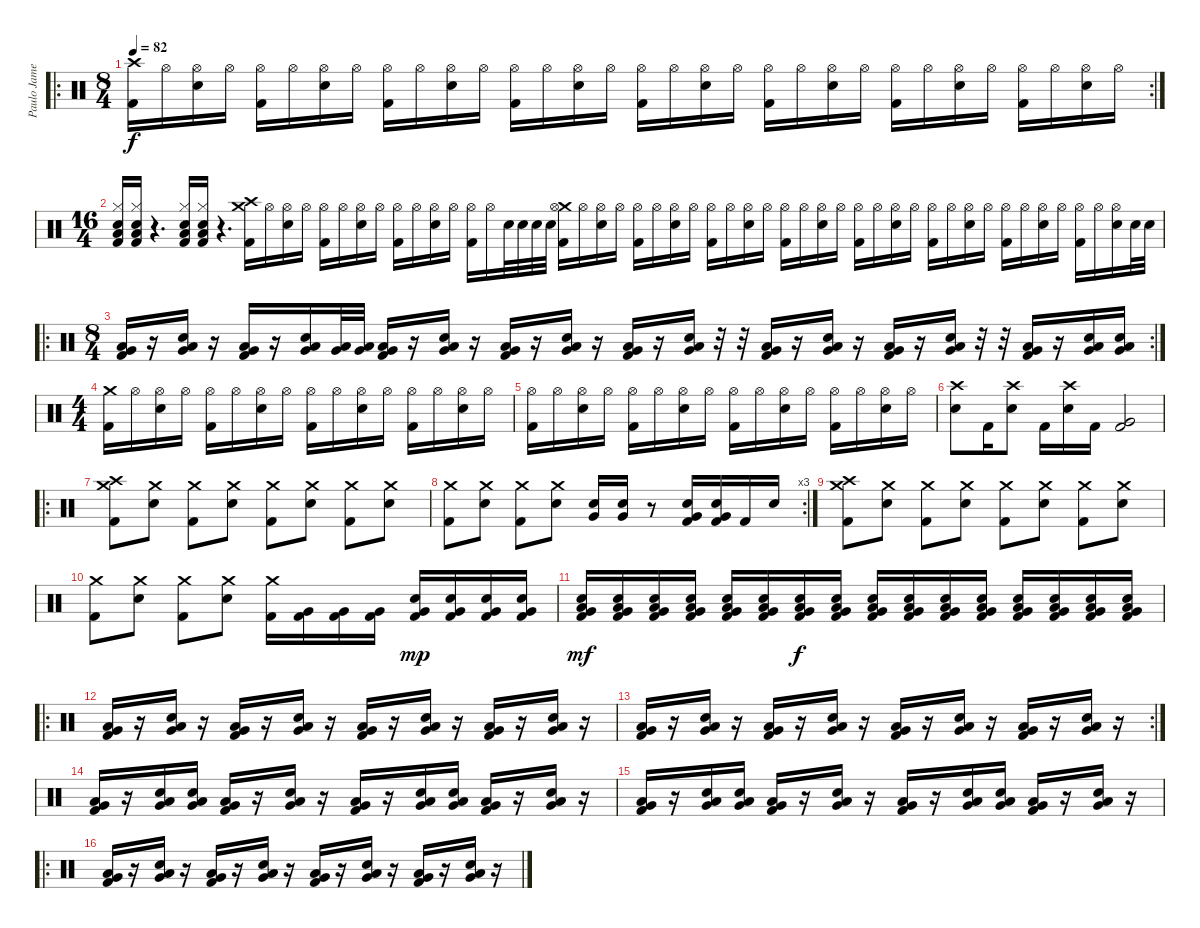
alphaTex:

\track ("Paulo James" "Paulo Jame") {instrument percussion}
\staff {score}
\articulation defaults
\ro
\rc 2
\ts (8 4)
\tempo 82
\clef neutral
\ks c
("Crash high (hit)" "Kick (hit) 2").16{dy f} "Hi-Hat (open)".16 ("Hi-Hat (open)" "Electric Snare (hit)").16 "Hi-Hat (open)".16 ("Hi-Hat (open)" "Kick (hit) 2").16 "Hi-Hat (open)".16 ("Hi-Hat (open)" "Electric Snare (hit)").16 "Hi-Hat (open)".16 ("Hi-Hat (open)" "Kick (hit) 2").16 "Hi-Hat (open)".16 ("Hi-Hat (open)" "Electric Snare (hit)").16 "Hi-Hat (open)".16 ("Hi-Hat (open)" "Kick (hit) 2").16 "Hi-Hat (open)".16 ("Hi-Hat (open)" "Electric Snare (hit)").16 "Hi-Hat (open)".16 ("Hi-Hat (open)" "Kick (hit) 2").16 "Hi-Hat (open)".16 ("Hi-Hat (open)" "Electric Snare (hit)").16 "Hi-Hat (open)".16 ("Hi-Hat (open)" "Kick (hit) 2").16 "Hi-Hat (open)".16 ("Hi-Hat (open)" "Electric Snare (hit)").16 "Hi-Hat (open)".16 ("Hi-Hat (open)" "Kick (hit) 2").16 "Hi-Hat (open)".16 ("Hi-Hat (open)" "Electric Snare (hit)").16 "Hi-Hat (open)".16 ("Hi-Hat (open)" "Kick (hit) 2").16 "Hi-Hat (open)".16 ("Hi-Hat (open)" "Electric Snare (hit)").16 "Hi-Hat (open)".16 |
\ts (16 4)
("Hi-Hat (closed)" "Low Floor Tom (hit)" "Electric Snare (hit)" "Kick (hit) 2").16{balance 0} ("Hi-Hat (closed)" "Low Floor Tom (hit)" "Electric Snare (hit)" "Kick (hit) 2").16 r.4{d} ("Hi-Hat (closed)" "Low Floor Tom (hit)" "Electric Snare (hit)" "Kick (hit) 2").16{balance 16} ("Hi-Hat (closed)" "Low Floor Tom (hit)" "Electric Snare (hit)" "Kick (hit) 2").16 r.4{d balance 8} ("Crash medium (hit)" "Crash high (hit)" "Kick (hit) 2").16 "Hi-Hat (open)".16 ("Hi-Hat (open)" "Electric Snare (hit)").16 "Hi-Hat (open)".16 ("Hi-Hat (open)" "Kick (hit) 2").16 "Hi-Hat (open)".16 ("Hi-Hat (open)" "Electric Snare (hit)").16 "Hi-Hat (open)".16 ("Hi-Hat (open)" "Kick (hit) 2").16 "Hi-Hat (open)".16 ("Hi-Hat (open)" "Electric Snare (hit)").16 "Hi-Hat (open)".16 ("Hi-Hat (open)" "Kick (hit) 2").16 "Hi-Hat (open)".16 "Electric Snare (hit)".32 "Electric Snare (hit)".32 "Electric Snare (hit)".32 "Electric Snare (hit)".32 ("Crash medium (hit)" "Hi-Hat (open)" "Kick (hit) 2").16 "Hi-Hat (open)".16 ("Hi-Hat (open)" "Electric Snare (hit)").16 "Hi-Hat (open)".16 ("Hi-Hat (open)" "Kick (hit) 2").16 "Hi-Hat (open)".16 ("Hi-Hat (open)" "Electric Snare (hit)").16 "Hi-Hat (open)".16 ("Hi-Hat (open)" "Kick (hit) 2").16 "Hi-Hat (open)".16 ("Hi-Hat (open)" "Electric Snare (hit)").16 "Hi-Hat (open)".16 ("Hi-Hat (open)" "Kick (hit) 2").16 "Hi-Hat (open)".16 ("Hi-Hat (open)" "Electric Snare (hit)").16 "Hi-Hat (open)".16 ("Hi-Hat (open)" "Kick (hit) 2").16 "Hi-Hat (open)".16 ("Hi-Hat (open)" "Electric Snare (hit)").16 "Hi-Hat (open)".16 ("Hi-Hat (open)" "Kick (hit) 2").16 "Hi-Hat (open)".16 ("Hi-Hat (open)" "Electric Snare (hit)").16 "Hi-Hat (open)".16 ("Hi-Hat (open)" "Kick (hit) 2").16 "Hi-Hat (open)".16 ("Hi-Hat (open)" "Electric Snare (hit)").16 "Hi-Hat (open)".16 ("Hi-Hat (open)" "Kick (hit) 2").16 "Hi-Hat (open)".16 ("Hi-Hat (open)" "Electric Snare (hit)").16 "Electric Snare (hit)".32 "Electric Snare (hit)".32 |
\ro
\rc 2
\ts (8 4)
("Very Low Tom (hit)" "Low Floor Tom (hit)" "Kick (hit) 2").16 r.16 ("Very Low Tom (hit)" "Low Floor Tom (hit)" "Electric Snare (hit)").16 r.16 ("Very Low Tom (hit)" "Low Floor Tom (hit)" "Kick (hit) 2").16 r.16 ("Very Low Tom (hit)" "Low Floor Tom (hit)" "Electric Snare (hit)").16 ("Very Low Tom (hit)" "Low Floor Tom (hit)").32 ("Very Low Tom (hit)" "Low Floor Tom (hit)").32 ("Very Low Tom (hit)" "Low Floor Tom (hit)" "Kick (hit) 2").16 r.16 ("Very Low Tom (hit)" "Low Floor Tom (hit)" "Electric Snare (hit)").16 r.16 ("Very Low Tom (hit)" "Low Floor Tom (hit)" "Kick (hit) 2").16 r.16 ("Very Low Tom (hit)" "Low Floor Tom (hit)" "Electric Snare (hit)").16 r.16 ("Very Low Tom (hit)" "Low Floor Tom (hit)" "Kick (hit) 2").16 r.16 ("Very Low Tom (hit)" "Low Floor Tom (hit)" "Electric Snare (hit)").16 r.32 r.32 ("Very Low Tom (hit)" "Low Floor Tom (hit)" "Kick (hit) 2").16 r.16 ("Very Low Tom (hit)" "Low Floor Tom (hit)" "Electric Snare (hit)").16 r.16 ("Very Low Tom (hit)" "Low Floor Tom (hit)" "Kick (hit) 2").16 r.16 ("Very Low Tom (hit)" "Low Floor Tom (hit)" "Electric Snare (hit)").16 r.32 r.32 ("Very Low Tom (hit)" "Low Floor Tom (hit)" "Kick (hit) 2").16 r.16 ("Very Low Tom (hit)" "Low Floor Tom (hit)" "Electric Snare (hit)").16 ("Very Low Tom (hit)" "Low Floor Tom (hit)" "Electric Snare (hit)").16 |
\ts (4 4)
("Crash medium (hit)" "Kick (hit) 2").16 "Hi-Hat (open)".16 ("Hi-Hat (open)" "Electric Snare (hit)").16 "Hi-Hat (open)".16 ("Hi-Hat (open)" "Kick (hit) 2").16 "Hi-Hat (open)".16 ("Hi-Hat (open)" "Electric Snare (hit)").16 "Hi-Hat (open)".16 ("Hi-Hat (open)" "Kick (hit) 2").16 "Hi-Hat (open)".16 ("Hi-Hat (open)" "Electric Snare (hit)").16 "Hi-Hat (open)".16 ("Hi-Hat (open)" "Kick (hit) 2").16 "Hi-Hat (open)".16 ("Hi-Hat (open)" "Electric Snare (hit)").16 "Hi-Hat (open)".16 |
("Hi-Hat (open)" "Kick (hit) 2").16 "Hi-Hat (open)".16 ("Hi-Hat (open)" "Electric Snare (hit)").16 "Hi-Hat (open)".16 ("Hi-Hat (open)" "Kick (hit) 2").16 "Hi-Hat (open)".16 ("Hi-Hat (open)" "Electric Snare (hit)").16 "Hi-Hat (open)".16 ("Hi-Hat (open)" "Kick (hit) 2").16 "Hi-Hat (open)".16 ("Hi-Hat (open)" "Electric Snare (hit)").16 "Hi-Hat (open)".16 ("Hi-Hat (open)" "Kick (hit) 2").16 "Hi-Hat (open)".16 ("Hi-Hat (open)" "Electric Snare (hit)").16 "Hi-Hat (open)".16 |
("Crash high (hit)" "Electric Snare (hit)").8 "Kick (hit) 2".16 ("Crash high (hit)" "Electric Snare (hit)").8 "Kick (hit) 2".16 ("Crash high (hit)" "Electric Snare (hit)").16 "Kick (hit) 2".16 ("Very Low Tom (hit)" "Kick (hit) 2").2 |
\ro
("Crash high (hit)" "Crash medium (hit)" "Kick (hit) 2").8 ("Crash medium (hit)" "Electric Snare (hit)").8 ("Crash medium (hit)" "Kick (hit) 2").8 ("Crash medium (hit)" "Electric Snare (hit)").8 ("Crash medium (hit)" "Kick (hit) 2").8 ("Crash medium (hit)" "Electric Snare (hit)").8 ("Crash medium (hit)" "Kick (hit) 2").8 ("Crash medium (hit)" "Electric Snare (hit)").8 |
\rc 3
("Crash medium (hit)" "Kick (hit) 2").8 ("Crash medium (hit)" "Electric Snare (hit)").8 ("Crash medium (hit)" "Kick (hit) 2").8 ("Crash medium (hit)" "Electric Snare (hit)").8 ("Very Low Tom (hit)" "Electric Snare (hit)").16 ("Very Low Tom (hit)" "Electric Snare (hit)").16 r.8 ("Very Low Tom (hit)" "Electric Snare (hit)" "Kick (hit) 2").16 ("Very Low Tom (hit)" "Electric Snare (hit)" "Kick (hit) 2").16 "Kick (hit) 2".16 "Electric Snare (hit)".16 |
("Crash high (hit)" "Crash medium (hit)" "Kick (hit) 2").8 ("Crash medium (hit)" "Electric Snare (hit)").8 ("Crash medium (hit)" "Kick (hit) 2").8 ("Crash medium (hit)" "Electric Snare (hit)").8 ("Crash medium (hit)" "Kick (hit) 2").8 ("Crash medium (hit)" "Electric Snare (hit)").8 ("Crash medium (hit)" "Kick (hit) 2").8 ("Crash medium (hit)" "Electric Snare (hit)").8 |
("Crash medium (hit)" "Kick (hit) 2").8 ("Crash medium (hit)" "Electric Snare (hit)").8 ("Crash medium (hit)" "Kick (hit) 2").8 ("Crash medium (hit)" "Electric Snare (hit)").8 ("Crash medium (hit)" "Kick (hit) 2").16 ("Very Low Tom (hit)" "Kick (hit) 2").16 ("Very Low Tom (hit)" "Kick (hit) 2").16 ("Very Low Tom (hit)" "Kick (hit) 2").16 ("Very Low Tom (hit)" "Electric Snare (hit)" "Kick (hit) 2").16{dy mp} ("Very Low Tom (hit)" "Electric Snare (hit)" "Kick (hit) 2").16 ("Very Low Tom (hit)" "Electric Snare (hit)" "Kick (hit) 2").16 ("Very Low Tom (hit)" "Electric Snare (hit)" "Kick (hit) 2").16 |
("Very Low Tom (hit)" "Electric Snare (hit)" "Kick (hit) 2" "Low Floor Tom (hit)").16{dy mf} ("Very Low Tom (hit)" "Electric Snare (hit)" "Kick (hit) 2" "Low Floor Tom (hit)").16 ("Very Low Tom (hit)" "Electric Snare (hit)" "Kick (hit) 2" "Low Floor Tom (hit)").16 ("Very Low Tom (hit)" "Electric Snare (hit)" "Kick (hit) 2" "Low Floor Tom (hit)").16 ("Very Low Tom (hit)" "Electric Snare (hit)" "Kick (hit) 2" "Low Floor Tom (hit)").16 ("Very Low Tom (hit)" "Electric Snare (hit)" "Kick (hit) 2" "Low Floor Tom (hit)").16 ("Very Low Tom (hit)" "Electric Snare (hit)" "Kick (hit) 2" "Low Floor Tom (hit)").16{dy f} ("Very Low Tom (hit)" "Electric Snare (hit)" "Kick (hit) 2" "Low Floor Tom (hit)").16 ("Very Low Tom (hit)" "Electric Snare (hit)" "Kick (hit) 2" "Low Floor Tom (hit)").16 ("Very Low Tom (hit)" "Electric Snare (hit)" "Kick (hit) 2" "Low Floor Tom (hit)").16 ("Very Low Tom (hit)" "Electric Snare (hit)" "Kick (hit) 2" "Low Floor Tom (hit)").16 ("Very Low Tom (hit)" "Electric Snare (hit)" "Kick (hit) 2" "Low Floor Tom (hit)").16 ("Very Low Tom (hit)" "Electric Snare (hit)" "Kick (hit) 2" "Low Floor Tom (hit)").16 ("Very Low Tom (hit)" "Electric Snare (hit)" "Kick (hit) 2" "Low Floor Tom (hit)").16 ("Very Low Tom (hit)" "Electric Snare (hit)" "Kick (hit) 2" "Low Floor Tom (hit)").16 ("Very Low Tom (hit)" "Electric Snare (hit)" "Kick (hit) 2" "Low Floor Tom (hit)").16 |
\ro
("Very Low Tom (hit)" "Low Floor Tom (hit)" "Kick (hit) 2").16 r.16 ("Very Low Tom (hit)" "Electric Snare (hit)" "Low Floor Tom (hit)").16 r.16 ("Very Low Tom (hit)" "Low Floor Tom (hit)" "Kick (hit) 2").16 r.16 ("Very Low Tom (hit)" "Electric Snare (hit)" "Low Floor Tom (hit)").16 r.16 ("Very Low Tom (hit)" "Low Floor Tom (hit)" "Kick (hit) 2").16 r.16 ("Very Low Tom (hit)" "Electric Snare (hit)" "Low Floor Tom (hit)").16 r.16 ("Very Low Tom (hit)" "Low Floor Tom (hit)" "Kick (hit) 2").16 r.16 ("Very Low Tom (hit)" "Electric Snare (hit)" "Low Floor Tom (hit)").16 r.16 |
\rc 2
("Very Low Tom (hit)" "Low Floor Tom (hit)" "Kick (hit) 2").16 r.16 ("Very Low Tom (hit)" "Electric Snare (hit)" "Low Floor Tom (hit)").16 r.16 ("Very Low Tom (hit)" "Low Floor Tom (hit)" "Kick (hit) 2").16 r.16 ("Very Low Tom (hit)" "Electric Snare (hit)" "Low Floor Tom (hit)").16 r.16 ("Very Low Tom (hit)" "Low Floor Tom (hit)" "Kick (hit) 2").16 r.16 ("Very Low Tom (hit)" "Electric Snare (hit)" "Low Floor Tom (hit)").16 r.16 ("Very Low Tom (hit)" "Low Floor Tom (hit)" "Kick (hit) 2").16 r.16 ("Very Low Tom (hit)" "Electric Snare (hit)" "Low Floor Tom (hit)").16 r.16 |
("Very Low Tom (hit)" "Low Floor Tom (hit)" "Kick (hit) 2").16 r.16 ("Very Low Tom (hit)" "Electric Snare (hit)" "Low Floor Tom (hit)").16 ("Very Low Tom (hit)" "Electric Snare (hit)" "Low Floor Tom (hit)").16 ("Very Low Tom (hit)" "Low Floor Tom (hit)" "Kick (hit) 2").16 r.16 ("Very Low Tom (hit)" "Electric Snare (hit)" "Low Floor Tom (hit)").16 r.16 ("Very Low Tom (hit)" "Low Floor Tom (hit)" "Kick (hit) 2").16 r.16 ("Very Low Tom (hit)" "Electric Snare (hit)" "Low Floor Tom (hit)").16 ("Very Low Tom (hit)" "Electric Snare (hit)" "Low Floor Tom (hit)").16 ("Very Low Tom (hit)" "Low Floor Tom (hit)" "Kick (hit) 2").16 r.16 ("Very Low Tom (hit)" "Electric Snare (hit)" "Low Floor Tom (hit)").16 r.16 |
("Very Low Tom (hit)" "Low Floor Tom (hit)" "Kick (hit) 2").16 r.16 ("Very Low Tom (hit)" "Electric Snare (hit)" "Low Floor Tom (hit)").16 ("Very Low Tom (hit)" "Electric Snare (hit)" "Low Floor Tom (hit)").16 ("Very Low Tom (hit)" "Low Floor Tom (hit)" "Kick (hit) 2").16 r.16 ("Very Low Tom (hit)" "Electric Snare (hit)" "Low Floor Tom (hit)").16 r.16 ("Very Low Tom (hit)" "Low Floor Tom (hit)" "Kick (hit) 2").16 r.16 ("Very Low Tom (hit)" "Electric Snare (hit)" "Low Floor Tom (hit)").16 ("Very Low Tom (hit)" "Electric Snare (hit)" "Low Floor Tom (hit)").16 ("Very Low Tom (hit)" "Low Floor Tom (hit)" "Kick (hit) 2").16 r.16 ("Very Low Tom (hit)" "Electric Snare (hit)" "Low Floor Tom (hit)").16 r.16 |
\ro
("Very Low Tom (hit)" "Low Floor Tom (hit)" "Kick (hit) 2").16 r.16 ("Very Low Tom (hit)" "Electric Snare (hit)" "Low Floor Tom (hit)").16 r.16 ("Very Low Tom (hit)" "Low Floor Tom (hit)" "Kick (hit) 2").16 r.16 ("Very Low Tom (hit)" "Electric Snare (hit)" "Low Floor Tom (hit)").16 r.16 ("Very Low Tom (hit)" "Low Floor Tom (hit)" "Kick (hit) 2").16 r.16 ("Very Low Tom (hit)" "Electric Snare (hit)" "Low Floor Tom (hit)").16 r.16 ("Very Low Tom (hit)" "Low Floor Tom (hit)" "Kick (hit) 2").16 r.16 ("Very Low Tom (hit)" "Electric Snare (hit)" "Low Floor Tom (hit)").16 r.16
